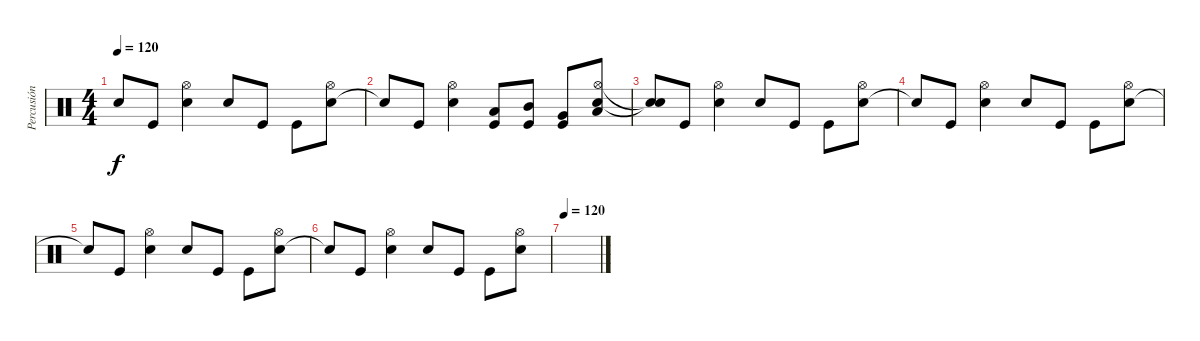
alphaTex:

\track ("Percusión" "Percusión") {instrument percussion}
\staff {score}
\articulation defaults
\ts (4 4)
\tempo 120
\clef neutral
\ks c "Snare (hit)"{t}.8{dy f} "Kick (hit)".8
("Electric Snare (hit)" "Hi-Hat (open)").4 "Snare (hit) 2".8 "Kick (hit)".8 "Kick (hit)".8 ("Electric Snare (hit)" "Hi-Hat (open)").8 |
"Snare (hit)"{t}.8 "Kick (hit)".8 ("Electric Snare (hit)" "Hi-Hat (open)").4 ("Kick (hit)" "Low Tom (hit)").8 ("Kick (hit)" "Mid Tom (hit)").8 ("Kick (hit)" "Very Low Tom (hit)").8 ("Electric Snare (hit)" "Hi-Hat (open)" "Low Floor Tom (hit)").8 |
("Snare (hit)"{t} "Snare (hit)"{t}).8 "Kick (hit)".8 ("Electric Snare (hit)" "Hi-Hat (open)").4 "Snare (hit) 2".8 "Kick (hit)".8 "Kick (hit)".8 ("Electric Snare (hit)" "Hi-Hat (open)").8 |
"Snare (hit)"{t}.8 "Kick (hit)".8 ("Electric Snare (hit)" "Hi-Hat (open)").4 "Snare (hit) 2".8 "Kick (hit)".8 "Kick (hit)".8 ("Electric Snare (hit)" "Hi-Hat (open)").8 |
"Snare (hit)"{t}.8 "Kick (hit)".8 ("Electric Snare (hit)" "Hi-Hat (open)").4 "Snare (hit) 2".8 "Kick (hit)".8 "Kick (hit)".8 ("Electric Snare (hit)" "Hi-Hat (open)").8 |
"Snare (hit)"{t}.8 "Kick (hit)".8 ("Electric Snare (hit)" "Hi-Hat (open)").4 "Snare (hit) 2".8 "Kick (hit)".8 "Kick (hit)".8 ("Electric Snare (hit)" "Hi-Hat (open)").8 |
\tempo 120
